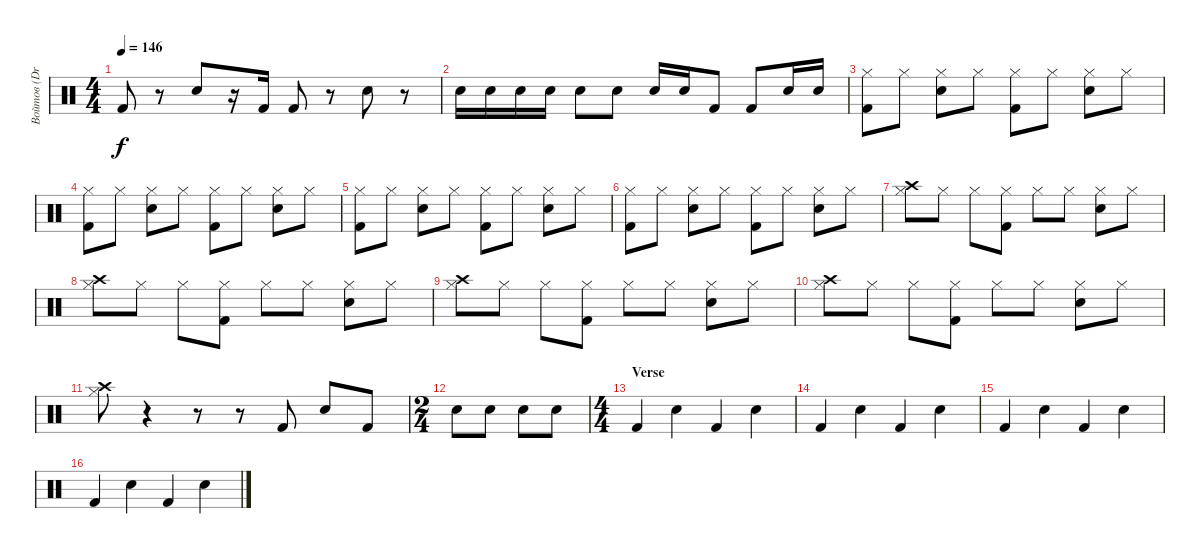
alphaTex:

\track ("Войтов (Drums)" "Войтов (Dr") {instrument percussion}
\staff {score}
\articulation defaults
\ts (4 4)
\tempo 146
\clef neutral
\ks c "Kick (hit) 2".8{dy f}
r.8 "Electric Snare (hit)".8 r.16 "Kick (hit) 2".16 "Kick (hit) 2".8 r.8 "Electric Snare (hit)".8 r.8 |
"Electric Snare (hit)".16 "Electric Snare (hit)".16 "Electric Snare (hit)".16 "Electric Snare (hit)".16 "Electric Snare (hit)".8 "Electric Snare (hit)".8 "Electric Snare (hit)".16 "Electric Snare (hit)".16 "Kick (hit) 2".8 "Kick (hit) 2".8 "Electric Snare (hit)".16 "Electric Snare (hit)".16 |
("Kick (hit) 2" "Hi-Hat (closed)").8 "Hi-Hat (closed)".8 ("Electric Snare (hit)" "Hi-Hat (closed)").8 "Hi-Hat (closed)".8 ("Kick (hit) 2" "Hi-Hat (closed)").8 "Hi-Hat (closed)".8 ("Electric Snare (hit)" "Hi-Hat (closed)").8 "Hi-Hat (closed)".8 |
("Kick (hit) 2" "Hi-Hat (closed)").8 "Hi-Hat (closed)".8 ("Electric Snare (hit)" "Hi-Hat (closed)").8 "Hi-Hat (closed)".8 ("Kick (hit) 2" "Hi-Hat (closed)").8 "Hi-Hat (closed)".8 ("Electric Snare (hit)" "Hi-Hat (closed)").8 "Hi-Hat (closed)".8 |
("Kick (hit) 2" "Hi-Hat (closed)").8 "Hi-Hat (closed)".8 ("Electric Snare (hit)" "Hi-Hat (closed)").8 "Hi-Hat (closed)".8 ("Kick (hit) 2" "Hi-Hat (closed)").8 "Hi-Hat (closed)".8 ("Electric Snare (hit)" "Hi-Hat (closed)").8 "Hi-Hat (closed)".8 |
("Kick (hit) 2" "Hi-Hat (closed)").8 "Hi-Hat (closed)".8 ("Electric Snare (hit)" "Hi-Hat (closed)").8 "Hi-Hat (closed)".8 ("Kick (hit) 2" "Hi-Hat (closed)").8 "Hi-Hat (closed)".8 ("Electric Snare (hit)" "Hi-Hat (closed)").8 "Hi-Hat (closed)".8 |
("Crash high (hit)" "Hi-Hat (closed)").8 "Hi-Hat (closed)".8 "Hi-Hat (closed)".8 ("Kick (hit) 2" "Hi-Hat (closed)").8 "Hi-Hat (closed)".8 "Hi-Hat (closed)".8 ("Electric Snare (hit)" "Hi-Hat (closed)").8 "Hi-Hat (closed)".8 |
("Crash high (hit)" "Hi-Hat (closed)").8 "Hi-Hat (closed)".8 "Hi-Hat (closed)".8 ("Kick (hit) 2" "Hi-Hat (closed)").8 "Hi-Hat (closed)".8 "Hi-Hat (closed)".8 ("Electric Snare (hit)" "Hi-Hat (closed)").8 "Hi-Hat (closed)".8 |
("Crash high (hit)" "Hi-Hat (closed)").8 "Hi-Hat (closed)".8 "Hi-Hat (closed)".8 ("Kick (hit) 2" "Hi-Hat (closed)").8 "Hi-Hat (closed)".8 "Hi-Hat (closed)".8 ("Electric Snare (hit)" "Hi-Hat (closed)").8 "Hi-Hat (closed)".8 |
("Crash high (hit)" "Hi-Hat (closed)").8 "Hi-Hat (closed)".8 "Hi-Hat (closed)".8 ("Kick (hit) 2" "Hi-Hat (closed)").8 "Hi-Hat (closed)".8 "Hi-Hat (closed)".8 ("Electric Snare (hit)" "Hi-Hat (closed)").8 "Hi-Hat (closed)".8 |
("Crash high (hit)" "Hi-Hat (closed)").8 r.4 r.8 r.8 "Kick (hit) 2".8 "Electric Snare (hit)".8 "Kick (hit) 2".8 |
\ts (2 4)
"Electric Snare (hit)".8 "Electric Snare (hit)".8 "Electric Snare (hit)".8 "Electric Snare (hit)".8 |
\ts (4 4)
\section ("" "Verse")
"Kick (hit) 2".4 "Electric Snare (hit)".4 "Kick (hit) 2".4 "Electric Snare (hit)".4 |
"Kick (hit) 2".4 "Electric Snare (hit)".4 "Kick (hit) 2".4 "Electric Snare (hit)".4 |
"Kick (hit) 2".4 "Electric Snare (hit)".4 "Kick (hit) 2".4 "Electric Snare (hit)".4 |
"Kick (hit) 2".4 "Electric Snare (hit)".4 "Kick (hit) 2".4 "Electric Snare (hit)".4
